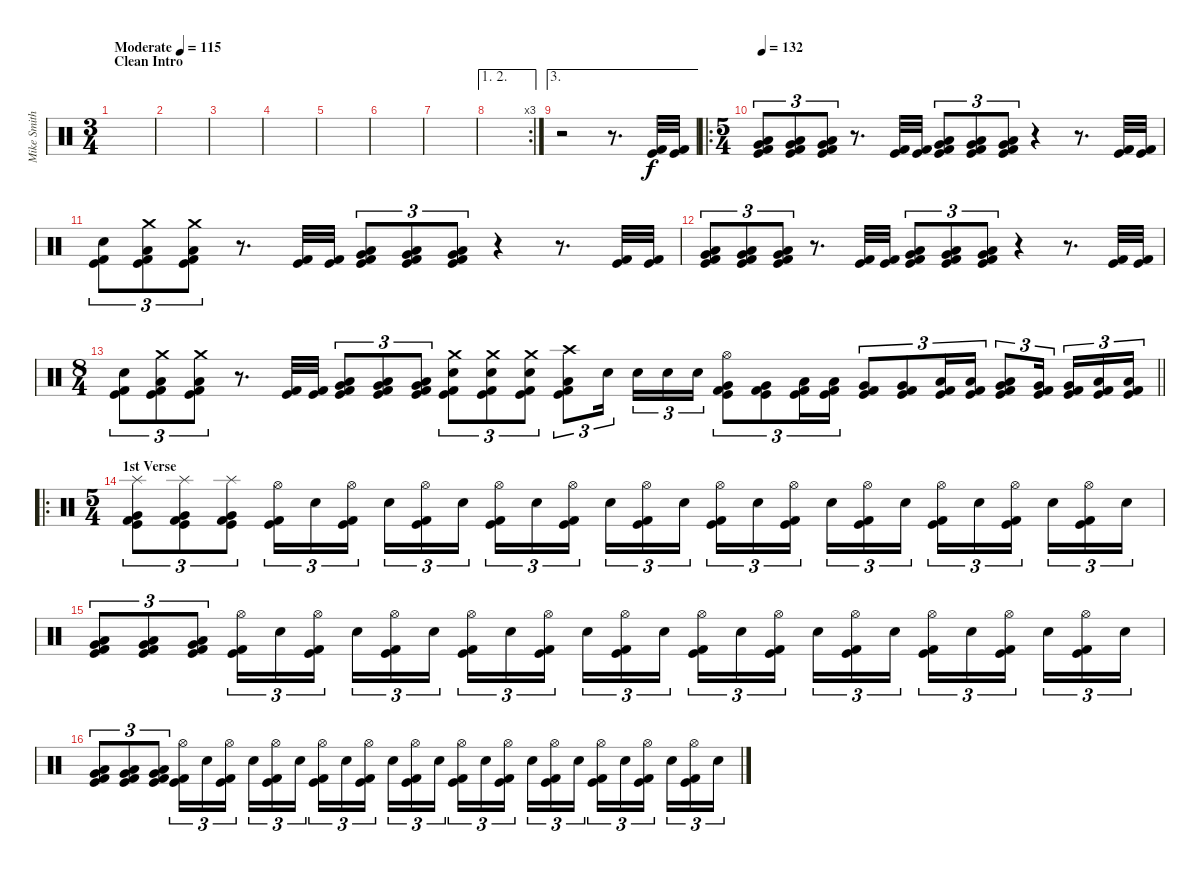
\track ("Mike Smith" "Mike Smith") {instrument percussion}
\staff {score}
\articulation defaults
\ts (3 4)
\section ("" "Clean Intro")
\tempo (115 "Moderate")
\clef neutral
\ks c
|
|
|
|
|
|
|
\ae (1 2)
\rc 3
|
\ae 3
r.2 r.8{d} ("Kick (hit)" "Kick (hit) 2").32 ("Kick (hit)" "Kick (hit) 2").32 |
\ro
\ts (5 4)
\tempo 132
("Very Low Tom (hit)" "Low Floor Tom (hit)" "Kick (hit)" "Kick (hit) 2").8{tu (3 2)} ("Very Low Tom (hit)" "Low Floor Tom (hit)" "Kick (hit)" "Kick (hit) 2").8{tu (3 2)} ("Very Low Tom (hit)" "Low Floor Tom (hit)" "Kick (hit)" "Kick (hit) 2").8{tu (3 2)} r.8{d} ("Kick (hit)" "Kick (hit) 2").32 ("Kick (hit)" "Kick (hit) 2").32 ("Very Low Tom (hit)" "Low Floor Tom (hit)" "Kick (hit)" "Kick (hit) 2").8{tu (3 2)} ("Very Low Tom (hit)" "Low Floor Tom (hit)" "Kick (hit)" "Kick (hit) 2").8{tu (3 2)} ("Very Low Tom (hit)" "Low Floor Tom (hit)" "Kick (hit)" "Kick (hit) 2").8{tu (3 2)} r.4 r.8{d} ("Kick (hit)" "Kick (hit) 2").32 ("Kick (hit)" "Kick (hit) 2").32 |
("Electric Snare (hit)" "Kick (hit)" "Kick (hit) 2").8{tu (3 2)} ("Crash medium (hit)" "Low Floor Tom (hit)" "Kick (hit)" "Kick (hit) 2").8{tu (3 2)} ("Crash medium (hit)" "Low Floor Tom (hit)" "Kick (hit)" "Kick (hit) 2").8{tu (3 2)} r.8{d} ("Kick (hit)" "Kick (hit) 2").32 ("Kick (hit)" "Kick (hit) 2").32 ("Very Low Tom (hit)" "Low Floor Tom (hit)" "Kick (hit)" "Kick (hit) 2").8{tu (3 2)} ("Very Low Tom (hit)" "Low Floor Tom (hit)" "Kick (hit)" "Kick (hit) 2").8{tu (3 2)} ("Very Low Tom (hit)" "Low Floor Tom (hit)" "Kick (hit)" "Kick (hit) 2").8{tu (3 2)} r.4 r.8{d} ("Kick (hit)" "Kick (hit) 2").32 ("Kick (hit)" "Kick (hit) 2").32 |
("Very Low Tom (hit)" "Low Floor Tom (hit)" "Kick (hit)" "Kick (hit) 2").8{tu (3 2)} ("Very Low Tom (hit)" "Low Floor Tom (hit)" "Kick (hit)" "Kick (hit) 2").8{tu (3 2)} ("Very Low Tom (hit)" "Low Floor Tom (hit)" "Kick (hit)" "Kick (hit) 2").8{tu (3 2)} r.8{d} ("Kick (hit)" "Kick (hit) 2").32 ("Kick (hit)" "Kick (hit) 2").32 ("Very Low Tom (hit)" "Low Floor Tom (hit)" "Kick (hit)" "Kick (hit) 2").8{tu (3 2)} ("Very Low Tom (hit)" "Low Floor Tom (hit)" "Kick (hit)" "Kick (hit) 2").8{tu (3 2)} ("Very Low Tom (hit)" "Low Floor Tom (hit)" "Kick (hit)" "Kick (hit) 2").8{tu (3 2)} r.4 r.8{d} ("Kick (hit)" "Kick (hit) 2").32 ("Kick (hit)" "Kick (hit) 2").32 |
\ts (8 4)
\barLineRight lightlight
("Electric Snare (hit)" "Kick (hit)" "Kick (hit) 2").8{tu (3 2)} ("Crash medium (hit)" "Low Floor Tom (hit)" "Kick (hit)" "Kick (hit) 2").8{tu (3 2)} ("Crash medium (hit)" "Low Floor Tom (hit)" "Kick (hit)" "Kick (hit) 2").8{tu (3 2)} r.8{d} ("Kick (hit)" "Kick (hit) 2").32 ("Kick (hit)" "Kick (hit) 2").32 ("Very Low Tom (hit)" "Low Floor Tom (hit)" "Kick (hit)" "Kick (hit) 2").8{tu (3 2)} ("Very Low Tom (hit)" "Low Floor Tom (hit)" "Kick (hit)" "Kick (hit) 2").8{tu (3 2)} ("Very Low Tom (hit)" "Low Floor Tom (hit)" "Kick (hit)" "Kick (hit) 2").8{tu (3 2)} ("Crash medium (hit)" "Electric Snare (hit)" "Kick (hit)" "Kick (hit) 2").8{tu (3 2)} ("Crash medium (hit)" "Electric Snare (hit)" "Kick (hit)" "Kick (hit) 2").8{tu (3 2)} ("Crash medium (hit)" "Electric Snare (hit)" "Kick (hit)" "Kick (hit) 2").8{tu (3 2)} ("Crash high (hit)" "Low Floor Tom (hit)" "Kick (hit)" "Kick (hit) 2").8{tu (3 2)} "Electric Snare (hit)".16{tu (3 2) beam splitsecondary} "Electric Snare (hit)".16{tu (3 2)} "Electric Snare (hit)".16{tu (3 2)} "Electric Snare (hit)".16{tu (3 2)} ("Hi-Hat (open)" "Very Low Tom (hit)" "Kick (hit)" "Kick (hit) 2").8{tu (3 2)} ("Very Low Tom (hit)" "Kick (hit)" "Kick (hit) 2").8{tu (3 2)} ("Low Floor Tom (hit)" "Kick (hit)" "Kick (hit) 2").16{tu (3 2)} ("Low Floor Tom (hit)" "Kick (hit)" "Kick (hit) 2").16{tu (3 2)} ("Very Low Tom (hit)" "Kick (hit)" "Kick (hit) 2").8{tu (3 2)} ("Very Low Tom (hit)" "Kick (hit)" "Kick (hit) 2").8{tu (3 2)} ("Low Floor Tom (hit)" "Kick (hit)" "Kick (hit) 2").16{tu (3 2)} ("Low Floor Tom (hit)" "Kick (hit)" "Kick (hit) 2").16{tu (3 2)} ("Very Low Tom (hit)" "Low Floor Tom (hit)" "Kick (hit)" "Kick (hit) 2").8{tu (3 2)} ("Very Low Tom (hit)" "Kick (hit)" "Kick (hit) 2").16{tu (3 2) beam splitsecondary} ("Very Low Tom (hit)" "Kick (hit)" "Kick (hit) 2").16{tu (3 2)} ("Low Floor Tom (hit)" "Kick (hit)" "Kick (hit) 2").16{tu (3 2)} ("Low Floor Tom (hit)" "Kick (hit)" "Kick (hit) 2").16{tu (3 2)} |
\ro
\ts (5 4)
\section ("" "1st Verse")
("Splash (hit)" "Very Low Tom (hit)" "Kick (hit)" "Kick (hit) 2").8{tu (3 2)} ("Splash (hit)" "Very Low Tom (hit)" "Kick (hit)" "Kick (hit) 2").8{tu (3 2)} ("Splash (hit)" "Very Low Tom (hit)" "Kick (hit)" "Kick (hit) 2").8{tu (3 2)} ("Hi-Hat (open)" "Kick (hit)" "Kick (hit) 2").16{tu (3 2)} "Electric Snare (hit)".16{tu (3 2)} ("Hi-Hat (open)" "Kick (hit)" "Kick (hit) 2").16{tu (3 2) beam splitsecondary} "Electric Snare (hit)".16{tu (3 2)} ("Hi-Hat (open)" "Kick (hit)" "Kick (hit) 2").16{tu (3 2)} "Electric Snare (hit)".16{tu (3 2)} ("Hi-Hat (open)" "Kick (hit)" "Kick (hit) 2").16{tu (3 2)} "Electric Snare (hit)".16{tu (3 2)} ("Hi-Hat (open)" "Kick (hit)" "Kick (hit) 2").16{tu (3 2) beam splitsecondary} "Electric Snare (hit)".16{tu (3 2)} ("Hi-Hat (open)" "Kick (hit)" "Kick (hit) 2").16{tu (3 2)} "Electric Snare (hit)".16{tu (3 2)} ("Hi-Hat (open)" "Kick (hit)" "Kick (hit) 2").16{tu (3 2)} "Electric Snare (hit)".16{tu (3 2)} ("Hi-Hat (open)" "Kick (hit)" "Kick (hit) 2").16{tu (3 2) beam splitsecondary} "Electric Snare (hit)".16{tu (3 2)} ("Hi-Hat (open)" "Kick (hit)" "Kick (hit) 2").16{tu (3 2)} "Electric Snare (hit)".16{tu (3 2)} ("Hi-Hat (open)" "Kick (hit)" "Kick (hit) 2").16{tu (3 2)} "Electric Snare (hit)".16{tu (3 2)} ("Hi-Hat (open)" "Kick (hit)" "Kick (hit) 2").16{tu (3 2) beam splitsecondary} "Electric Snare (hit)".16{tu (3 2)} ("Hi-Hat (open)" "Kick (hit)" "Kick (hit) 2").16{tu (3 2)} "Electric Snare (hit)".16{tu (3 2)} |
("Very Low Tom (hit)" "Low Floor Tom (hit)" "Kick (hit)" "Kick (hit) 2").8{tu (3 2)} ("Very Low Tom (hit)" "Low Floor Tom (hit)" "Kick (hit)" "Kick (hit) 2").8{tu (3 2)} ("Very Low Tom (hit)" "Low Floor Tom (hit)" "Kick (hit)" "Kick (hit) 2").8{tu (3 2)} ("Hi-Hat (open)" "Kick (hit)" "Kick (hit) 2").16{tu (3 2)} "Electric Snare (hit)".16{tu (3 2)} ("Hi-Hat (open)" "Kick (hit)" "Kick (hit) 2").16{tu (3 2) beam splitsecondary} "Electric Snare (hit)".16{tu (3 2)} ("Hi-Hat (open)" "Kick (hit)" "Kick (hit) 2").16{tu (3 2)} "Electric Snare (hit)".16{tu (3 2)} ("Hi-Hat (open)" "Kick (hit)" "Kick (hit) 2").16{tu (3 2)} "Electric Snare (hit)".16{tu (3 2)} ("Hi-Hat (open)" "Kick (hit)" "Kick (hit) 2").16{tu (3 2) beam splitsecondary} "Electric Snare (hit)".16{tu (3 2)} ("Hi-Hat (open)" "Kick (hit)" "Kick (hit) 2").16{tu (3 2)} "Electric Snare (hit)".16{tu (3 2)} ("Hi-Hat (open)" "Kick (hit)" "Kick (hit) 2").16{tu (3 2)} "Electric Snare (hit)".16{tu (3 2)} ("Hi-Hat (open)" "Kick (hit)" "Kick (hit) 2").16{tu (3 2) beam splitsecondary} "Electric Snare (hit)".16{tu (3 2)} ("Hi-Hat (open)" "Kick (hit)" "Kick (hit) 2").16{tu (3 2)} "Electric Snare (hit)".16{tu (3 2)} ("Hi-Hat (open)" "Kick (hit)" "Kick (hit) 2").16{tu (3 2)} "Electric Snare (hit)".16{tu (3 2)} ("Hi-Hat (open)" "Kick (hit)" "Kick (hit) 2").16{tu (3 2) beam splitsecondary} "Electric Snare (hit)".16{tu (3 2)} ("Hi-Hat (open)" "Kick (hit)" "Kick (hit) 2").16{tu (3 2)} "Electric Snare (hit)".16{tu (3 2)} |
("Very Low Tom (hit)" "Low Floor Tom (hit)" "Kick (hit)" "Kick (hit) 2").8{tu (3 2)} ("Very Low Tom (hit)" "Low Floor Tom (hit)" "Kick (hit)" "Kick (hit) 2").8{tu (3 2)} ("Very Low Tom (hit)" "Low Floor Tom (hit)" "Kick (hit)" "Kick (hit) 2").8{tu (3 2)} ("Hi-Hat (open)" "Kick (hit)" "Kick (hit) 2").16{tu (3 2)} "Electric Snare (hit)".16{tu (3 2)} ("Hi-Hat (open)" "Kick (hit)" "Kick (hit) 2").16{tu (3 2) beam splitsecondary} "Electric Snare (hit)".16{tu (3 2)} ("Hi-Hat (open)" "Kick (hit)" "Kick (hit) 2").16{tu (3 2)} "Electric Snare (hit)".16{tu (3 2)} ("Hi-Hat (open)" "Kick (hit)" "Kick (hit) 2").16{tu (3 2)} "Electric Snare (hit)".16{tu (3 2)} ("Hi-Hat (open)" "Kick (hit)" "Kick (hit) 2").16{tu (3 2) beam splitsecondary} "Electric Snare (hit)".16{tu (3 2)} ("Hi-Hat (open)" "Kick (hit)" "Kick (hit) 2").16{tu (3 2)} "Electric Snare (hit)".16{tu (3 2)} ("Hi-Hat (open)" "Kick (hit)" "Kick (hit) 2").16{tu (3 2)} "Electric Snare (hit)".16{tu (3 2)} ("Hi-Hat (open)" "Kick (hit)" "Kick (hit) 2").16{tu (3 2) beam splitsecondary} "Electric Snare (hit)".16{tu (3 2)} ("Hi-Hat (open)" "Kick (hit)" "Kick (hit) 2").16{tu (3 2)} "Electric Snare (hit)".16{tu (3 2)} ("Hi-Hat (open)" "Kick (hit)" "Kick (hit) 2").16{tu (3 2)} "Electric Snare (hit)".16{tu (3 2)} ("Hi-Hat (open)" "Kick (hit)" "Kick (hit) 2").16{tu (3 2) beam splitsecondary} "Electric Snare (hit)".16{tu (3 2)} ("Hi-Hat (open)" "Kick (hit)" "Kick (hit) 2").16{tu (3 2)} "Electric Snare (hit)".16{tu (3 2)}
